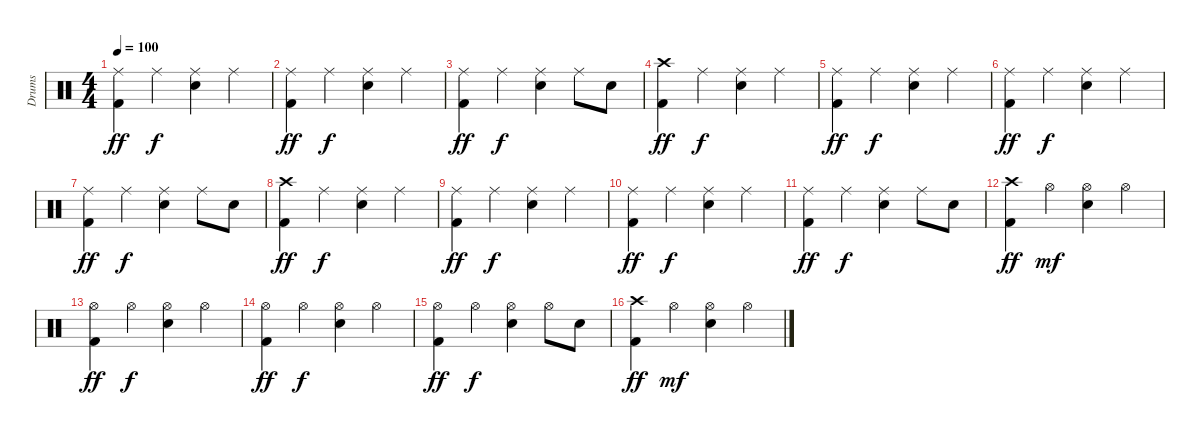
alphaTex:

\track ("Drums" "Drums") {instrument percussion}
\staff {score}
\articulation defaults
\ts (4 4)
\tempo 100
\clef neutral
\ks c
("Ride (middle)" "Kick (hit) 2").4{dy ff} "Ride (middle)".4{dy f} ("Ride (middle)" "Electric Snare (hit)").4 "Ride (middle)".4 |
("Ride (middle)" "Kick (hit) 2").4{dy ff} "Ride (middle)".4{dy f} ("Ride (middle)" "Electric Snare (hit)").4 "Ride (middle)".4 |
("Ride (middle)" "Kick (hit) 2").4{dy ff} "Ride (middle)".4{dy f} ("Ride (middle)" "Electric Snare (hit)").4 "Ride (middle)".8 "Electric Snare (hit)".8 |
("Crash high (hit)" "Kick (hit) 2").4{dy ff} "Ride (middle)".4{dy f} ("Ride (middle)" "Electric Snare (hit)").4 "Ride (middle)".4 |
("Ride (middle)" "Kick (hit) 2").4{dy ff} "Ride (middle)".4{dy f} ("Ride (middle)" "Electric Snare (hit)").4 "Ride (middle)".4 |
("Ride (middle)" "Kick (hit) 2").4{dy ff} "Ride (middle)".4{dy f} ("Ride (middle)" "Electric Snare (hit)").4 "Ride (middle)".4 |
("Ride (middle)" "Kick (hit) 2").4{dy ff} "Ride (middle)".4{dy f} ("Ride (middle)" "Electric Snare (hit)").4 "Ride (middle)".8 "Electric Snare (hit)".8 |
("Crash high (hit)" "Kick (hit) 2").4{dy ff} "Ride (middle)".4{dy f} ("Ride (middle)" "Electric Snare (hit)").4 "Ride (middle)".4 |
("Ride (middle)" "Kick (hit) 2").4{dy ff} "Ride (middle)".4{dy f} ("Ride (middle)" "Electric Snare (hit)").4 "Ride (middle)".4 |
("Ride (middle)" "Kick (hit) 2").4{dy ff} "Ride (middle)".4{dy f} ("Ride (middle)" "Electric Snare (hit)").4 "Ride (middle)".4 |
("Ride (middle)" "Kick (hit) 2").4{dy ff} "Ride (middle)".4{dy f} ("Ride (middle)" "Electric Snare (hit)").4 "Ride (middle)".8 "Electric Snare (hit)".8 |
("Crash high (hit)" "Kick (hit) 2").4{dy ff} "Hi-Hat (open)".4{dy mf} ("Hi-Hat (open)" "Electric Snare (hit)").4 "Hi-Hat (open)".4 |
("Hi-Hat (open)" "Kick (hit) 2").4{dy ff} "Hi-Hat (open)".4{dy f} ("Hi-Hat (open)" "Electric Snare (hit)").4 "Hi-Hat (open)".4 |
("Hi-Hat (open)" "Kick (hit) 2").4{dy ff} "Hi-Hat (open)".4{dy f} ("Hi-Hat (open)" "Electric Snare (hit)").4 "Hi-Hat (open)".4 |
("Hi-Hat (open)" "Kick (hit) 2").4{dy ff} "Hi-Hat (open)".4{dy f} ("Hi-Hat (open)" "Electric Snare (hit)").4 "Hi-Hat (open)".8 "Electric Snare (hit)".8 |
("Crash high (hit)" "Kick (hit) 2").4{dy ff} "Hi-Hat (open)".4{dy mf} ("Hi-Hat (open)" "Electric Snare (hit)").4 "Hi-Hat (open)".4
